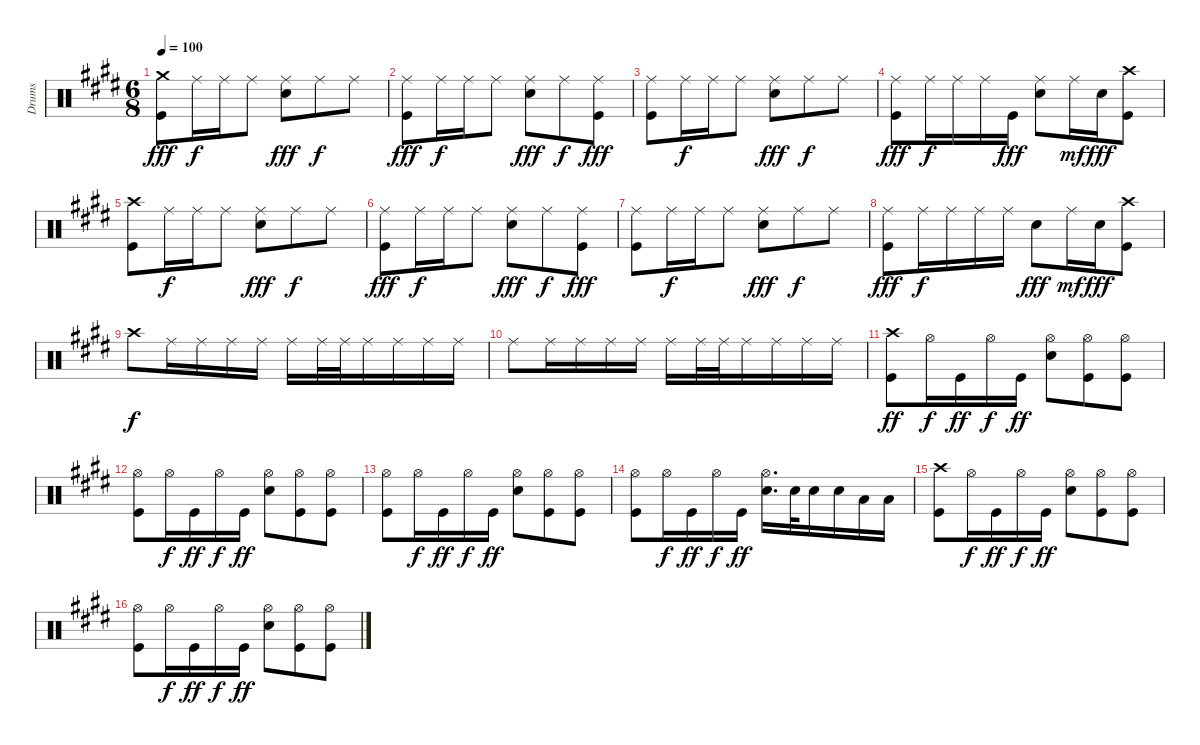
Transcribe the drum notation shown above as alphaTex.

\track ("Drums" "Drums") {instrument percussion}
\staff {score}
\articulation defaults
\ts (6 8)
\tempo 100
\clef neutral
\ks c#minor
("Crash medium (hit)" "Kick (hit)").8{dy fff} "Ride (middle)".16{dy f} "Ride (middle)".16 "Ride (middle)".8 ("Ride (middle)" "Electric Snare (hit)").8{dy fff} "Ride (middle)".8{dy f} "Ride (middle)".8 |
("Ride (middle)" "Kick (hit)").8{dy fff} "Ride (middle)".16{dy f} "Ride (middle)".16 "Ride (middle)".8 ("Ride (middle)" "Electric Snare (hit)").8{dy fff} "Ride (middle)".8{dy f} ("Ride (middle)" "Kick (hit)").8{dy fff} |
("Ride (middle)" "Kick (hit)").8 "Ride (middle)".16{dy f} "Ride (middle)".16 "Ride (middle)".8 ("Ride (middle)" "Electric Snare (hit)").8{dy fff} "Ride (middle)".8{dy f} "Ride (middle)".8 |
("Ride (middle)" "Kick (hit)").8{dy fff} "Ride (middle)".16{dy f} "Ride (middle)".16 "Ride (middle)".16 "Kick (hit)".16{dy fff} ("Ride (middle)" "Electric Snare (hit)").8 "Ride (middle)".16{dy mf} "Electric Snare (hit)".16{dy fff} ("Crash high (hit)" "Kick (hit)").8 |
("Crash high (hit)" "Kick (hit)").8 "Ride (middle)".16{dy f} "Ride (middle)".16 "Ride (middle)".8 ("Ride (middle)" "Electric Snare (hit)").8{dy fff} "Ride (middle)".8{dy f} "Ride (middle)".8 |
("Ride (middle)" "Kick (hit)").8{dy fff} "Ride (middle)".16{dy f} "Ride (middle)".16 "Ride (middle)".8 ("Ride (middle)" "Electric Snare (hit)").8{dy fff} "Ride (middle)".8{dy f} ("Ride (middle)" "Kick (hit)").8{dy fff} |
("Ride (middle)" "Kick (hit)").8 "Ride (middle)".16{dy f} "Ride (middle)".16 "Ride (middle)".8 ("Ride (middle)" "Electric Snare (hit)").8{dy fff} "Ride (middle)".8{dy f} "Ride (middle)".8 |
("Ride (middle)" "Kick (hit)").8{dy fff} "Ride (middle)".16{dy f} "Ride (middle)".16 "Ride (middle)".16 "Ride (middle)".16 "Electric Snare (hit)".8{dy fff} "Ride (middle)".16{dy mf} "Electric Snare (hit)".16{dy fff} ("Crash high (hit)" "Kick (hit)").8 |
"Crash high (hit)".8{dy f} "Ride (middle)".16 "Ride (middle)".16 "Ride (middle)".16 "Ride (middle)".16 "Ride (middle)".16 "Ride (middle)".32 "Ride (middle)".32 "Ride (middle)".16 "Ride (middle)".16 "Ride (middle)".16 "Ride (middle)".16 |
"Ride (middle)".8 "Ride (middle)".16 "Ride (middle)".16 "Ride (middle)".16 "Ride (middle)".16 "Ride (middle)".16 "Ride (middle)".32 "Ride (middle)".32 "Ride (middle)".16 "Ride (middle)".16 "Ride (middle)".16 "Ride (middle)".16 |
("Crash high (hit)" "Kick (hit)").8{dy ff} "Hi-Hat (open)".16{dy f} "Kick (hit)".16{dy ff} "Hi-Hat (open)".16{dy f} "Kick (hit)".16{dy ff} ("Hi-Hat (open)" "Electric Snare (hit)").8 ("Hi-Hat (open)" "Kick (hit)").8 ("Hi-Hat (open)" "Kick (hit)").8 |
("Hi-Hat (open)" "Kick (hit)").8 "Hi-Hat (open)".16{dy f} "Kick (hit)".16{dy ff} "Hi-Hat (open)".16{dy f} "Kick (hit)".16{dy ff} ("Hi-Hat (open)" "Electric Snare (hit)").8 ("Hi-Hat (open)" "Kick (hit)").8 ("Hi-Hat (open)" "Kick (hit)").8 |
("Hi-Hat (open)" "Kick (hit)").8 "Hi-Hat (open)".16{dy f} "Kick (hit)".16{dy ff} "Hi-Hat (open)".16{dy f} "Kick (hit)".16{dy ff} ("Hi-Hat (open)" "Electric Snare (hit)").8 ("Hi-Hat (open)" "Kick (hit)").8 ("Hi-Hat (open)" "Kick (hit)").8 |
("Hi-Hat (open)" "Kick (hit)").8 "Hi-Hat (open)".16{dy f} "Kick (hit)".16{dy ff} "Hi-Hat (open)".16{dy f} "Kick (hit)".16{dy ff} ("Hi-Hat (open)" "Electric Snare (hit)").16{d} "Electric Snare (hit)".32 "Electric Snare (hit)".16 "Electric Snare (hit)".16 "Low Tom (hit)".16 "Low Tom (hit)".16 |
("Crash high (hit)" "Kick (hit)").8 "Hi-Hat (open)".16{dy f} "Kick (hit)".16{dy ff} "Hi-Hat (open)".16{dy f} "Kick (hit)".16{dy ff} ("Hi-Hat (open)" "Electric Snare (hit)").8 ("Hi-Hat (open)" "Kick (hit)").8 ("Hi-Hat (open)" "Kick (hit)").8 |
("Hi-Hat (open)" "Kick (hit)").8 "Hi-Hat (open)".16{dy f} "Kick (hit)".16{dy ff} "Hi-Hat (open)".16{dy f} "Kick (hit)".16{dy ff} ("Hi-Hat (open)" "Electric Snare (hit)").8 ("Hi-Hat (open)" "Kick (hit)").8 ("Hi-Hat (open)" "Kick (hit)").8
